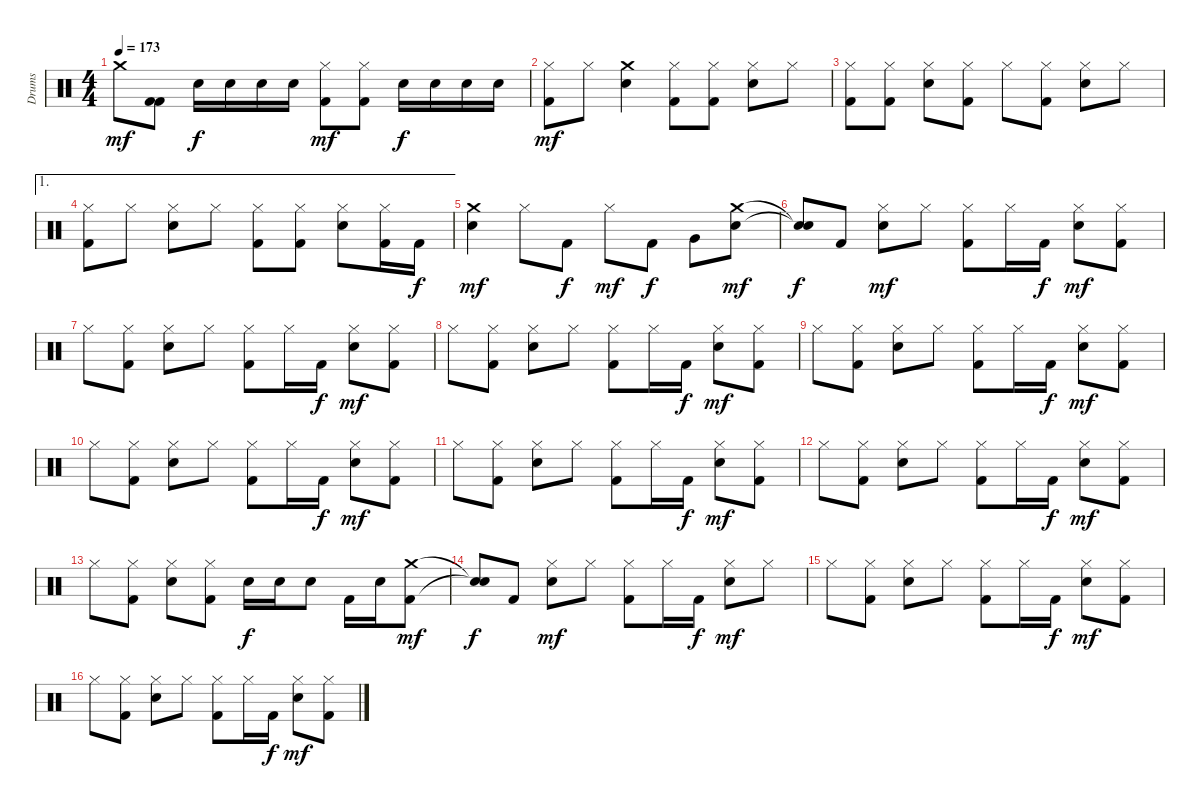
\track ("Drums" "Drums") {instrument percussion}
\staff {score}
\articulation defaults
\ts (4 4)
\tempo 173
\clef neutral
\ks c "Crash medium (hit)".8{dy mf}
("Kick (hit) 2" "Kick (hit) 2").8 "Electric Snare (hit)".16{dy f} "Electric Snare (hit)".16 "Electric Snare (hit)".16 "Electric Snare (hit)".16 ("Hi-Hat (closed)" "Kick (hit) 2").8{dy mf} ("Hi-Hat (closed)" "Kick (hit) 2").8 "Electric Snare (hit)".16{dy f} "Electric Snare (hit)".16 "Electric Snare (hit)".16 "Electric Snare (hit)".16 |
("Hi-Hat (closed)" "Kick (hit) 2").8{dy mf} "Hi-Hat (closed)".8 ("Crash medium (hit)" "Electric Snare (hit)").4 ("Hi-Hat (closed)" "Kick (hit) 2").8 ("Hi-Hat (closed)" "Kick (hit) 2").8 ("Hi-Hat (closed)" "Electric Snare (hit)").8 "Hi-Hat (closed)".8 |
("Hi-Hat (closed)" "Kick (hit) 2").8 ("Hi-Hat (closed)" "Kick (hit) 2").8 ("Hi-Hat (closed)" "Electric Snare (hit)").8 ("Hi-Hat (closed)" "Kick (hit) 2").8 "Hi-Hat (closed)".8 ("Hi-Hat (closed)" "Kick (hit) 2").8 ("Hi-Hat (closed)" "Electric Snare (hit)").8 "Hi-Hat (closed)".8 |
\ae 1
("Hi-Hat (closed)" "Kick (hit) 2").8 "Hi-Hat (closed)".8 ("Hi-Hat (closed)" "Electric Snare (hit)").8 "Hi-Hat (closed)".8 ("Hi-Hat (closed)" "Kick (hit) 2").8 ("Hi-Hat (closed)" "Kick (hit) 2").8 ("Hi-Hat (closed)" "Electric Snare (hit)").8 ("Hi-Hat (closed)" "Kick (hit) 2").16 "Kick (hit) 2".16{dy f} |
("Crash medium (hit)" "Electric Snare (hit)").4{dy mf} "Hi-Hat (closed)".8 "Kick (hit) 2".8{dy f} "Hi-Hat (closed)".8{dy mf} "Kick (hit) 2".8{dy f} "Very Low Tom (hit)".8 ("Crash medium (hit)" "Electric Snare (hit)").8{dy mf} |
("Snare (hit)"{t} "Snare (hit)"{t}).8{dy f} "Kick (hit) 2".8 ("Hi-Hat (closed)" "Electric Snare (hit)").8{dy mf} "Hi-Hat (closed)".8 ("Hi-Hat (closed)" "Kick (hit) 2").8 "Hi-Hat (closed)".16 "Kick (hit) 2".16{dy f} ("Hi-Hat (closed)" "Electric Snare (hit)").8{dy mf} ("Hi-Hat (closed)" "Kick (hit) 2").8 |
"Hi-Hat (closed)".8 ("Hi-Hat (closed)" "Kick (hit) 2").8 ("Hi-Hat (closed)" "Electric Snare (hit)").8 "Hi-Hat (closed)".8 ("Hi-Hat (closed)" "Kick (hit) 2").8 "Hi-Hat (closed)".16 "Kick (hit) 2".16{dy f} ("Hi-Hat (closed)" "Electric Snare (hit)").8{dy mf} ("Hi-Hat (closed)" "Kick (hit) 2").8 |
"Hi-Hat (closed)".8 ("Hi-Hat (closed)" "Kick (hit) 2").8 ("Hi-Hat (closed)" "Electric Snare (hit)").8 "Hi-Hat (closed)".8 ("Hi-Hat (closed)" "Kick (hit) 2").8 "Hi-Hat (closed)".16 "Kick (hit) 2".16{dy f} ("Hi-Hat (closed)" "Electric Snare (hit)").8{dy mf} ("Hi-Hat (closed)" "Kick (hit) 2").8 |
"Hi-Hat (closed)".8 ("Hi-Hat (closed)" "Kick (hit) 2").8 ("Hi-Hat (closed)" "Electric Snare (hit)").8 "Hi-Hat (closed)".8 ("Hi-Hat (closed)" "Kick (hit) 2").8 "Hi-Hat (closed)".16 "Kick (hit) 2".16{dy f} ("Hi-Hat (closed)" "Electric Snare (hit)").8{dy mf} ("Hi-Hat (closed)" "Kick (hit) 2").8 |
"Hi-Hat (closed)".8 ("Hi-Hat (closed)" "Kick (hit) 2").8 ("Hi-Hat (closed)" "Electric Snare (hit)").8 "Hi-Hat (closed)".8 ("Hi-Hat (closed)" "Kick (hit) 2").8 "Hi-Hat (closed)".16 "Kick (hit) 2".16{dy f} ("Hi-Hat (closed)" "Electric Snare (hit)").8{dy mf} ("Hi-Hat (closed)" "Kick (hit) 2").8 |
"Hi-Hat (closed)".8 ("Hi-Hat (closed)" "Kick (hit) 2").8 ("Hi-Hat (closed)" "Electric Snare (hit)").8 "Hi-Hat (closed)".8 ("Hi-Hat (closed)" "Kick (hit) 2").8 "Hi-Hat (closed)".16 "Kick (hit) 2".16{dy f} ("Hi-Hat (closed)" "Electric Snare (hit)").8{dy mf} ("Hi-Hat (closed)" "Kick (hit) 2").8 |
"Hi-Hat (closed)".8 ("Hi-Hat (closed)" "Kick (hit) 2").8 ("Hi-Hat (closed)" "Electric Snare (hit)").8 "Hi-Hat (closed)".8 ("Hi-Hat (closed)" "Kick (hit) 2").8 "Hi-Hat (closed)".16 "Kick (hit) 2".16{dy f} ("Hi-Hat (closed)" "Electric Snare (hit)").8{dy mf} ("Hi-Hat (closed)" "Kick (hit) 2").8 |
"Hi-Hat (closed)".8 ("Hi-Hat (closed)" "Kick (hit) 2").8 ("Hi-Hat (closed)" "Electric Snare (hit)").8 ("Hi-Hat (closed)" "Kick (hit) 2").8 "Electric Snare (hit)".16{dy f} "Electric Snare (hit)".16 "Electric Snare (hit)".8 "Kick (hit) 2".16 "Electric Snare (hit)".16 ("Crash medium (hit)" "Kick (hit) 2").8{dy mf} |
("Snare (hit)"{t} "Snare (hit)"{t}).8{dy f} "Kick (hit) 2".8 ("Hi-Hat (closed)" "Electric Snare (hit)").8{dy mf} "Hi-Hat (closed)".8 ("Hi-Hat (closed)" "Kick (hit) 2").8 "Hi-Hat (closed)".16 "Kick (hit) 2".16{dy f} ("Hi-Hat (closed)" "Electric Snare (hit)").8{dy mf} "Hi-Hat (closed)".8 |
"Hi-Hat (closed)".8 ("Hi-Hat (closed)" "Kick (hit) 2").8 ("Hi-Hat (closed)" "Electric Snare (hit)").8 "Hi-Hat (closed)".8 ("Hi-Hat (closed)" "Kick (hit) 2").8 "Hi-Hat (closed)".16 "Kick (hit) 2".16{dy f} ("Hi-Hat (closed)" "Electric Snare (hit)").8{dy mf} ("Hi-Hat (closed)" "Kick (hit) 2").8 |
"Hi-Hat (closed)".8 ("Hi-Hat (closed)" "Kick (hit) 2").8 ("Hi-Hat (closed)" "Electric Snare (hit)").8 "Hi-Hat (closed)".8 ("Hi-Hat (closed)" "Kick (hit) 2").8 "Hi-Hat (closed)".16 "Kick (hit) 2".16{dy f} ("Hi-Hat (closed)" "Electric Snare (hit)").8{dy mf} ("Hi-Hat (closed)" "Kick (hit) 2").8
